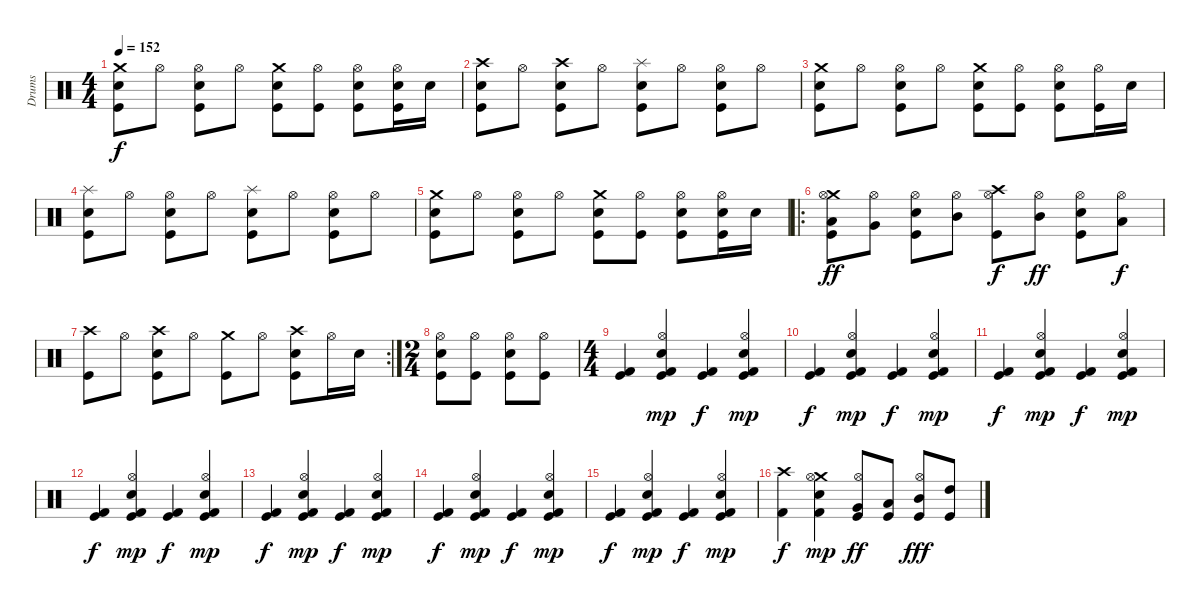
\track ("Drums" "Drums") {instrument percussion}
\staff {score}
\articulation defaults
\ts (4 4)
\tempo 152
\clef neutral
\ks c
("Crash medium (hit)" "Electric Snare (hit)" "Kick (hit)").8{dy f} "Hi-Hat (open)".8 ("Hi-Hat (open)" "Electric Snare (hit)" "Kick (hit)").8 "Hi-Hat (open)".8 ("Crash medium (hit)" "Electric Snare (hit)" "Kick (hit)").8 ("Hi-Hat (open)" "Kick (hit)").8 ("Hi-Hat (open)" "Electric Snare (hit)" "Kick (hit)").8 ("Hi-Hat (open)" "Electric Snare (hit)" "Kick (hit)").16 "Electric Snare (hit)".16 |
("Crash high (hit)" "Electric Snare (hit)" "Kick (hit)").8 "Hi-Hat (open)".8 ("Crash high (hit)" "Electric Snare (hit)" "Kick (hit)").8 "Hi-Hat (open)".8 ("Splash (hit)" "Electric Snare (hit)" "Kick (hit)").8 "Hi-Hat (open)".8 ("Hi-Hat (open)" "Electric Snare (hit)" "Kick (hit)").8 "Hi-Hat (open)".8 |
("Crash medium (hit)" "Electric Snare (hit)" "Kick (hit)").8 "Hi-Hat (open)".8 ("Hi-Hat (open)" "Electric Snare (hit)" "Kick (hit)").8 "Hi-Hat (open)".8 ("Crash medium (hit)" "Electric Snare (hit)" "Kick (hit)").8 ("Hi-Hat (open)" "Kick (hit)").8 ("Hi-Hat (open)" "Electric Snare (hit)" "Kick (hit)").8 ("Hi-Hat (open)" "Kick (hit)").16 "Electric Snare (hit)".16 |
("Splash (hit)" "Electric Snare (hit)" "Kick (hit)").8 "Hi-Hat (open)".8 ("Hi-Hat (open)" "Electric Snare (hit)" "Kick (hit)").8 "Hi-Hat (open)".8 ("Splash (hit)" "Electric Snare (hit)" "Kick (hit)").8 "Hi-Hat (open)".8 ("Hi-Hat (open)" "Electric Snare (hit)" "Kick (hit)").8 "Hi-Hat (open)".8 |
("Crash medium (hit)" "Electric Snare (hit)" "Kick (hit)").8 "Hi-Hat (open)".8 ("Hi-Hat (open)" "Electric Snare (hit)" "Kick (hit)").8 "Hi-Hat (open)".8 ("Crash medium (hit)" "Electric Snare (hit)" "Kick (hit)").8 ("Hi-Hat (open)" "Kick (hit)").8 ("Hi-Hat (open)" "Electric Snare (hit)" "Kick (hit)").8 ("Hi-Hat (open)" "Electric Snare (hit)" "Kick (hit)").16 "Electric Snare (hit)".16 |
\ro
("Low Floor Tom (hit)" "Crash medium (hit)" "Kick (hit)" "Hi-Hat (open)").8{dy ff} ("Very Low Tom (hit)" "Hi-Hat (open)").8 ("Electric Snare (hit)" "Kick (hit)" "Hi-Hat (open)").8 ("Mid Tom (hit)" "Hi-Hat (open)").8 ("Crash high (hit)" "Kick (hit)" "Hi-Hat (open)").8{dy f} ("Mid Tom (hit)" "Hi-Hat (open)").8{dy ff} ("Electric Snare (hit)" "Kick (hit)" "Hi-Hat (open)").8 ("Low Tom (hit)" "Hi-Hat (open)").8{dy f} |
\rc 2
("Crash high (hit)" "Kick (hit)").8 "Hi-Hat (open)".8 ("Crash high (hit)" "Electric Snare (hit)" "Kick (hit)").8 "Hi-Hat (open)".8 ("Crash medium (hit)" "Kick (hit)").8 "Hi-Hat (open)".8 ("Crash high (hit)" "Electric Snare (hit)" "Kick (hit)").8 "Hi-Hat (open)".16 "Electric Snare (hit)".16 |
\ts (2 4)
("Hi-Hat (open)" "Electric Snare (hit)" "Kick (hit)").8 ("Hi-Hat (open)" "Kick (hit)").8 ("Hi-Hat (open)" "Electric Snare (hit)" "Kick (hit)").8 ("Hi-Hat (open)" "Kick (hit)").8 |
\ts (4 4)
("Kick (hit)" "Kick (hit) 2").4 ("Kick (hit)" "Kick (hit) 2" "Electric Snare (hit)" "Hi-Hat (open)").4{dy mp} ("Kick (hit)" "Kick (hit) 2").4{dy f} ("Kick (hit)" "Kick (hit) 2" "Electric Snare (hit)" "Hi-Hat (open)").4{dy mp} |
("Kick (hit)" "Kick (hit) 2").4{dy f} ("Kick (hit)" "Kick (hit) 2" "Electric Snare (hit)" "Hi-Hat (open)").4{dy mp} ("Kick (hit)" "Kick (hit) 2").4{dy f} ("Kick (hit)" "Kick (hit) 2" "Electric Snare (hit)" "Hi-Hat (open)").4{dy mp} |
("Kick (hit)" "Kick (hit) 2").4{dy f} ("Kick (hit)" "Kick (hit) 2" "Electric Snare (hit)" "Hi-Hat (open)").4{dy mp} ("Kick (hit)" "Kick (hit) 2").4{dy f} ("Kick (hit)" "Kick (hit) 2" "Electric Snare (hit)" "Hi-Hat (open)").4{dy mp} |
("Kick (hit)" "Kick (hit) 2").4{dy f} ("Kick (hit)" "Kick (hit) 2" "Electric Snare (hit)" "Hi-Hat (open)").4{dy mp} ("Kick (hit)" "Kick (hit) 2").4{dy f} ("Kick (hit)" "Kick (hit) 2" "Electric Snare (hit)" "Hi-Hat (open)").4{dy mp} |
("Kick (hit)" "Kick (hit) 2").4{dy f} ("Kick (hit)" "Kick (hit) 2" "Electric Snare (hit)" "Hi-Hat (open)").4{dy mp} ("Kick (hit)" "Kick (hit) 2").4{dy f} ("Kick (hit)" "Kick (hit) 2" "Electric Snare (hit)" "Hi-Hat (open)").4{dy mp} |
("Kick (hit)" "Kick (hit) 2").4{dy f} ("Kick (hit)" "Kick (hit) 2" "Electric Snare (hit)" "Hi-Hat (open)").4{dy mp} ("Kick (hit)" "Kick (hit) 2").4{dy f} ("Kick (hit)" "Kick (hit) 2" "Electric Snare (hit)" "Hi-Hat (open)").4{dy mp} |
("Kick (hit)" "Kick (hit) 2").4{dy f} ("Kick (hit)" "Kick (hit) 2" "Electric Snare (hit)" "Hi-Hat (open)").4{dy mp} ("Kick (hit)" "Kick (hit) 2").4{dy f} ("Kick (hit)" "Kick (hit) 2" "Electric Snare (hit)" "Hi-Hat (open)").4{dy mp} |
("Crash high (hit)" "Kick (hit) 2").4{dy f} ("Crash medium (hit)" "Kick (hit) 2" "Electric Snare (hit)" "Hi-Hat (open)").4{dy mp} ("Kick (hit)" "Very Low Tom (hit)" "Hi-Hat (open)").8{dy ff} ("Kick (hit)" "Low Tom (hit)").8 ("Kick (hit)" "Mid Tom (hit)" "Hi-Hat (open)").8{dy fff} ("Kick (hit)" "High Tom (hit)").8
